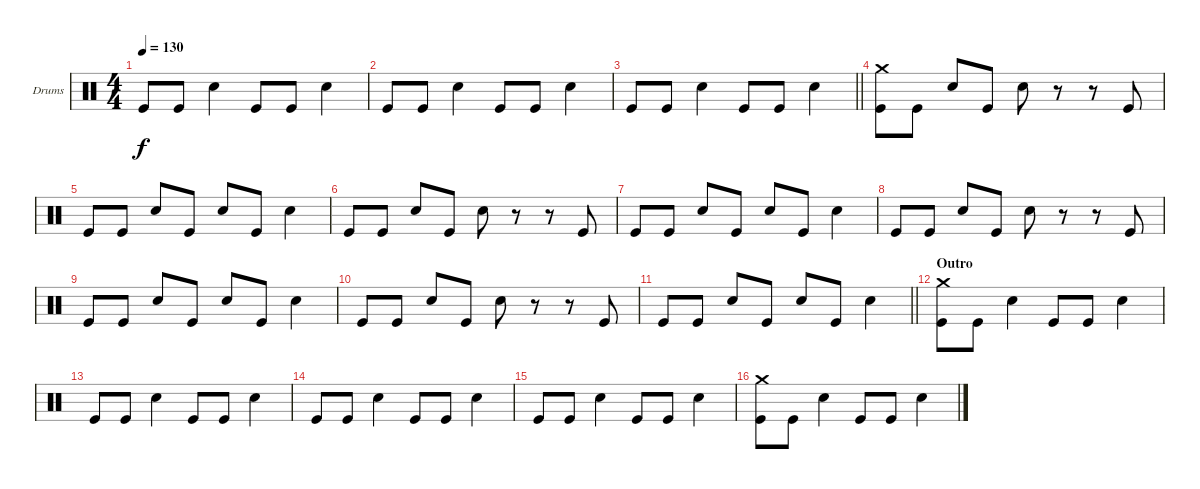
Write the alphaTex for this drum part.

\defaultSystemsLayout 4
\bracketExtendMode groupsimilarinstruments
\firstSystemTrackNameOrientation horizontal
\otherSystemsTrackNameOrientation horizontal
\track ("Drums" "Drums") {instrument percussion}
\staff {score}
\articulation defaults
\ts (4 4)
\tempo 130
\clef neutral
\ks aminor "Kick (hit)".8{dy f} "Kick (hit)".8 "Snare (hit) 2".4 "Kick (hit)".8 "Kick (hit)".8 "Snare (hit) 2".4
|
"Kick (hit)".8 "Kick (hit)".8 "Snare (hit) 2".4 "Kick (hit)".8 "Kick (hit)".8 "Snare (hit) 2".4 |
\barLineRight lightlight "Kick (hit)".8 "Kick (hit)".8 "Snare (hit) 2".4 "Kick (hit)".8 "Kick (hit)".8 "Snare (hit) 2".4
|
("Kick (hit)" "Crash medium (hit)").8 "Kick (hit)".8 "Snare (hit) 2".8 "Kick (hit)".8 "Snare (hit) 2".8 r.8 r.8 "Kick (hit)".8 |
"Kick (hit)".8 "Kick (hit)".8 "Snare (hit) 2".8 "Kick (hit)".8 "Snare (hit) 2".8 "Kick (hit)".8 "Snare (hit) 2".4 |
"Kick (hit)".8 "Kick (hit)".8 "Snare (hit) 2".8 "Kick (hit)".8 "Snare (hit) 2".8 r.8 r.8 "Kick (hit)".8 |
"Kick (hit)".8 "Kick (hit)".8 "Snare (hit) 2".8 "Kick (hit)".8 "Snare (hit) 2".8 "Kick (hit)".8 "Snare (hit) 2".4 |
"Kick (hit)".8 "Kick (hit)".8 "Snare (hit) 2".8 "Kick (hit)".8 "Snare (hit) 2".8 r.8 r.8 "Kick (hit)".8 |
"Kick (hit)".8 "Kick (hit)".8 "Snare (hit) 2".8 "Kick (hit)".8 "Snare (hit) 2".8 "Kick (hit)".8 "Snare (hit) 2".4 |
"Kick (hit)".8 "Kick (hit)".8 "Snare (hit) 2".8 "Kick (hit)".8 "Snare (hit) 2".8 r.8 r.8 "Kick (hit)".8 |
\barLineRight lightlight "Kick (hit)".8 "Kick (hit)".8 "Snare (hit) 2".8 "Kick (hit)".8 "Snare (hit) 2".8 "Kick (hit)".8 "Snare (hit) 2".4
|
\section ("" "Outro")
("Kick (hit)" "Crash medium (hit)").8 "Kick (hit)".8 "Snare (hit) 2".4 "Kick (hit)".8 "Kick (hit)".8 "Snare (hit) 2".4 |
"Kick (hit)".8 "Kick (hit)".8 "Snare (hit) 2".4 "Kick (hit)".8 "Kick (hit)".8 "Snare (hit) 2".4 |
"Kick (hit)".8 "Kick (hit)".8 "Snare (hit) 2".4 "Kick (hit)".8 "Kick (hit)".8 "Snare (hit) 2".4 |
"Kick (hit)".8 "Kick (hit)".8 "Snare (hit) 2".4 "Kick (hit)".8 "Kick (hit)".8 "Snare (hit) 2".4 |
("Kick (hit)" "Crash medium (hit)").8 "Kick (hit)".8 "Snare (hit) 2".4 "Kick (hit)".8 "Kick (hit)".8 "Snare (hit) 2".4
